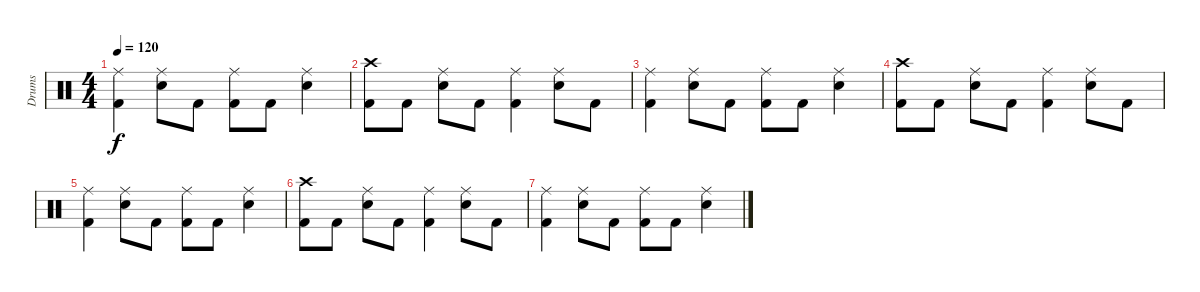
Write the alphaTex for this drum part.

\track ("Drums" "Drums") {instrument percussion}
\staff {score}
\articulation defaults
\ts (4 4)
\tempo 120
\clef neutral
\ks c
("Ride (middle)" "Kick (hit) 2").4{dy f} ("Ride (middle)" "Snare (hit) 2").8 "Kick (hit) 2".8 ("Ride (middle)" "Kick (hit) 2").8 "Kick (hit) 2".8 ("Ride (middle)" "Snare (hit) 2").4 |
("Crash high (hit)" "Kick (hit) 2").8 "Kick (hit) 2".8 ("Ride (middle)" "Snare (hit) 2").8 "Kick (hit) 2".8 ("Ride (middle)" "Kick (hit) 2").4 ("Ride (middle)" "Snare (hit) 2").8 "Kick (hit) 2".8 |
("Ride (middle)" "Kick (hit) 2").4 ("Ride (middle)" "Snare (hit) 2").8 "Kick (hit) 2".8 ("Ride (middle)" "Kick (hit) 2").8 "Kick (hit) 2".8 ("Ride (middle)" "Snare (hit) 2").4 |
("Crash high (hit)" "Kick (hit) 2").8 "Kick (hit) 2".8 ("Ride (middle)" "Snare (hit) 2").8 "Kick (hit) 2".8 ("Ride (middle)" "Kick (hit) 2").4 ("Ride (middle)" "Snare (hit) 2").8 "Kick (hit) 2".8 |
("Ride (middle)" "Kick (hit) 2").4 ("Ride (middle)" "Snare (hit) 2").8 "Kick (hit) 2".8 ("Ride (middle)" "Kick (hit) 2").8 "Kick (hit) 2".8 ("Ride (middle)" "Snare (hit) 2").4 |
("Crash high (hit)" "Kick (hit) 2").8 "Kick (hit) 2".8 ("Ride (middle)" "Snare (hit) 2").8 "Kick (hit) 2".8 ("Ride (middle)" "Kick (hit) 2").4 ("Ride (middle)" "Snare (hit) 2").8 "Kick (hit) 2".8 |
("Ride (middle)" "Kick (hit) 2").4 ("Ride (middle)" "Snare (hit) 2").8 "Kick (hit) 2".8 ("Ride (middle)" "Kick (hit) 2").8 "Kick (hit) 2".8 ("Ride (middle)" "Snare (hit) 2").4
